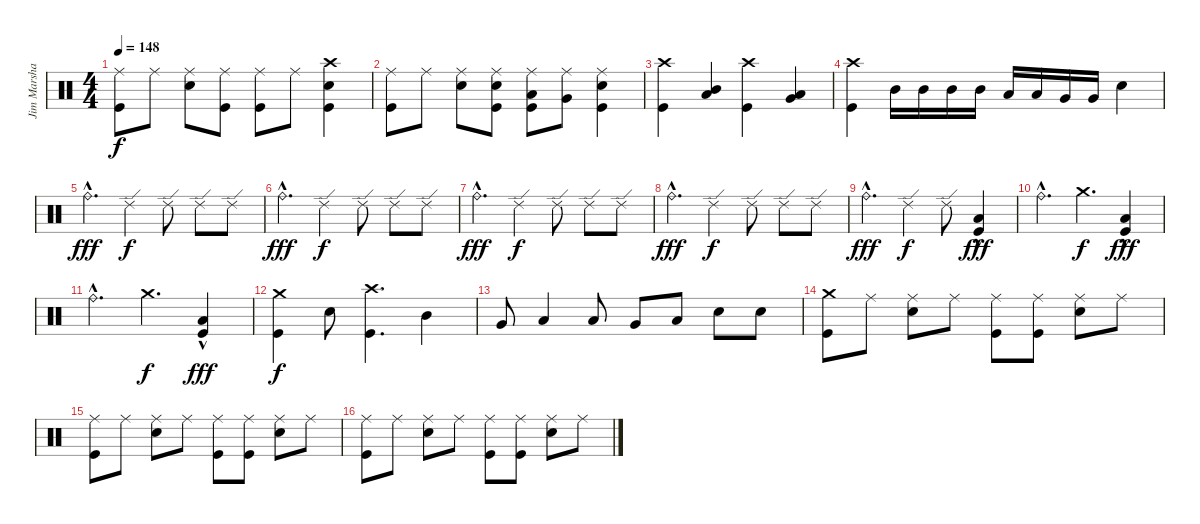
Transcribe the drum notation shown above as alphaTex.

\track ("Jim Marshall Drums" "Jim Marsha") {instrument percussion}
\staff {score}
\articulation defaults
\ts (4 4)
\tempo 148
\clef neutral
\ks c
("Ride (middle)" "Kick (hit)").8{dy f} "Ride (middle)".8 ("Ride (middle)" "Snare (hit) 2").8 ("Ride (middle)" "Kick (hit)").8 ("Ride (middle)" "Kick (hit)").8 "Ride (middle)".8 ("Crash high (hit)" "Snare (hit) 2" "Kick (hit)").4 |
("Ride (middle)" "Kick (hit)").8 "Ride (middle)".8 ("Ride (middle)" "Snare (hit) 2").8 ("Ride (middle)" "Snare (hit) 2" "Kick (hit)").8 ("Ride (middle)" "Low Tom (hit)" "Kick (hit)").8 ("Ride (middle)" "Very Low Tom (hit)").8 ("Ride (middle)" "Snare (hit) 2" "Kick (hit)").4 |
("Crash high (hit)" "Kick (hit)").4 ("Mid Tom (hit)" "Low Tom (hit)").4 ("Crash high (hit)" "Kick (hit)").4 ("Low Tom (hit)" "Very Low Tom (hit)").4 |
("Crash high (hit)" "Kick (hit)").4 "Mid Tom (hit)".16 "Mid Tom (hit)".16 "Mid Tom (hit)".16 "Mid Tom (hit)".16 "Low Tom (hit)".16 "Low Tom (hit)".16 "Very Low Tom (hit)".16 "Very Low Tom (hit)".16 "Snare (hit) 2".4 |
"Ride (bell)"{hac}.4{d dy fff volume 16} "Ride (edge) 2".4{dy f} "Ride (edge) 2".8 "Ride (edge) 2".8 "Ride (edge) 2".8 |
"Ride (bell)"{hac}.4{d dy fff} "Ride (edge) 2".4{dy f} "Ride (edge) 2".8 "Ride (edge) 2".8 "Ride (edge) 2".8 |
"Ride (bell)"{hac}.4{d dy fff} "Ride (edge) 2".4{dy f} "Ride (edge) 2".8 "Ride (edge) 2".8 "Ride (edge) 2".8 |
"Ride (bell)"{hac}.4{d dy fff} "Ride (edge) 2".4{dy f} "Ride (edge) 2".8 "Ride (edge) 2".8 "Ride (edge) 2".8 |
"Ride (bell)"{hac}.4{d dy fff} "Ride (edge) 2".4{dy f} "Ride (edge) 2".8 ("Low Floor Tom (hit)"{hac} "Kick (hit)").4{dy fff} |
"Ride (bell)"{hac}.4{d} "Crash medium (hit)".4{d dy f} ("Low Floor Tom (hit)"{hac} "Kick (hit)").4{dy fff} |
"Ride (bell)"{hac}.4{d} "Crash medium (hit)".4{d dy f} ("Low Floor Tom (hit)"{hac} "Kick (hit)").4{dy fff} |
("Crash medium (hit)" "Kick (hit)").4{dy f} "Snare (hit) 2".8 ("Crash high (hit)" "Kick (hit)").4{d} "Mid Tom (hit)".4 |
"Very Low Tom (hit)".8 "Low Tom (hit)".4 "Low Floor Tom (hit)".8 "Very Low Tom (hit)".8 "Low Floor Tom (hit)".8 "Snare (hit) 2".8 "Snare (hit) 2".8 |
("Crash medium (hit)" "Kick (hit)").8 "Ride (middle)".8 ("Ride (middle)" "Snare (hit) 2").8 "Ride (middle)".8 ("Ride (middle)" "Kick (hit)").8 ("Ride (middle)" "Kick (hit)").8 ("Ride (middle)" "Snare (hit) 2").8 "Ride (middle)".8 |
("Ride (middle)" "Kick (hit)").8 "Ride (middle)".8 ("Ride (middle)" "Snare (hit) 2").8 "Ride (middle)".8 ("Ride (middle)" "Kick (hit)").8 ("Ride (middle)" "Kick (hit)").8 ("Ride (middle)" "Snare (hit) 2").8 "Ride (middle)".8 |
("Ride (middle)" "Kick (hit)").8 "Ride (middle)".8 ("Ride (middle)" "Snare (hit) 2").8 "Ride (middle)".8 ("Ride (middle)" "Kick (hit)").8 ("Ride (middle)" "Kick (hit)").8 ("Ride (middle)" "Snare (hit) 2").8 "Ride (middle)".8
